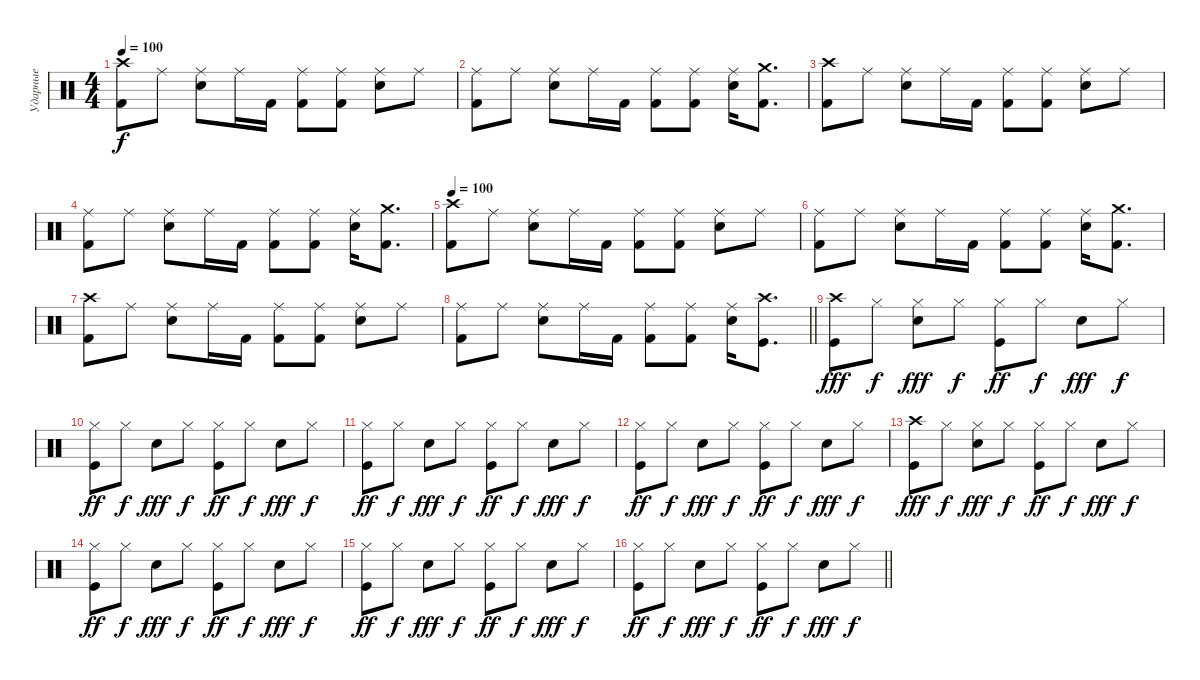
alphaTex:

\track ("Ударные" "Ударные") {instrument percussion}
\staff {score}
\articulation defaults
\ts (4 4)
\tempo 100
\clef neutral
\ks c
("Crash high (hit)" "Kick (hit) 2").8{dy f} "Ride (middle)".8 ("Ride (middle)" "Electric Snare (hit)").8 "Ride (middle)".16 "Kick (hit) 2".16 ("Ride (middle)" "Kick (hit) 2").8 ("Ride (middle)" "Kick (hit) 2").8 ("Ride (middle)" "Electric Snare (hit)").8 "Ride (middle)".8 |
("Ride (middle)" "Kick (hit) 2").8 "Ride (middle)".8 ("Ride (middle)" "Electric Snare (hit)").8 "Ride (middle)".16 "Kick (hit) 2".16 ("Ride (middle)" "Kick (hit) 2").8 ("Ride (middle)" "Kick (hit) 2").8 ("Ride (middle)" "Electric Snare (hit)").16 ("Crash medium (hit)" "Kick (hit) 2").8{d} |
("Crash high (hit)" "Kick (hit) 2").8 "Ride (middle)".8 ("Ride (middle)" "Electric Snare (hit)").8 "Ride (middle)".16 "Kick (hit) 2".16 ("Ride (middle)" "Kick (hit) 2").8 ("Ride (middle)" "Kick (hit) 2").8 ("Ride (middle)" "Electric Snare (hit)").8 "Ride (middle)".8 |
("Ride (middle)" "Kick (hit) 2").8 "Ride (middle)".8 ("Ride (middle)" "Electric Snare (hit)").8 "Ride (middle)".16 "Kick (hit) 2".16 ("Ride (middle)" "Kick (hit) 2").8 ("Ride (middle)" "Kick (hit) 2").8 ("Ride (middle)" "Electric Snare (hit)").16 ("Crash medium (hit)" "Kick (hit) 2").8{d} |
\tempo 100
("Crash high (hit)" "Kick (hit) 2").8 "Ride (middle)".8 ("Ride (middle)" "Electric Snare (hit)").8 "Ride (middle)".16 "Kick (hit) 2".16 ("Ride (middle)" "Kick (hit) 2").8 ("Ride (middle)" "Kick (hit) 2").8 ("Ride (middle)" "Electric Snare (hit)").8 "Ride (middle)".8 |
("Ride (middle)" "Kick (hit) 2").8 "Ride (middle)".8 ("Ride (middle)" "Electric Snare (hit)").8 "Ride (middle)".16 "Kick (hit) 2".16 ("Ride (middle)" "Kick (hit) 2").8 ("Ride (middle)" "Kick (hit) 2").8 ("Ride (middle)" "Electric Snare (hit)").16 ("Crash medium (hit)" "Kick (hit) 2").8{d} |
("Crash high (hit)" "Kick (hit) 2").8 "Ride (middle)".8 ("Ride (middle)" "Electric Snare (hit)").8 "Ride (middle)".16 "Kick (hit) 2".16 ("Ride (middle)" "Kick (hit) 2").8 ("Ride (middle)" "Kick (hit) 2").8 ("Ride (middle)" "Electric Snare (hit)").8 "Ride (middle)".8 |
\barLineRight lightlight
("Ride (middle)" "Kick (hit) 2").8 "Ride (middle)".8 ("Ride (middle)" "Electric Snare (hit)").8 "Ride (middle)".16 "Kick (hit) 2".16 ("Ride (middle)" "Kick (hit) 2").8 ("Ride (middle)" "Kick (hit) 2").8 ("Ride (middle)" "Electric Snare (hit)").16 ("Crash high (hit)" "Kick (hit)").8{d} |
("Kick (hit)" "Crash high (hit)").8{dy fff} "Hi-Hat (closed)".8{dy f} ("Electric Snare (hit)" "Hi-Hat (closed)").8{dy fff} "Hi-Hat (closed)".8{dy f} ("Kick (hit)" "Hi-Hat (closed)").8{dy ff} "Hi-Hat (closed)".8{dy f} "Electric Snare (hit)".8{dy fff} "Hi-Hat (closed)".8{dy f} |
("Kick (hit)" "Hi-Hat (closed)").8{dy ff} "Hi-Hat (closed)".8{dy f} "Electric Snare (hit)".8{dy fff} "Hi-Hat (closed)".8{dy f} ("Kick (hit)" "Hi-Hat (closed)").8{dy ff} "Hi-Hat (closed)".8{dy f} "Electric Snare (hit)".8{dy fff} "Hi-Hat (closed)".8{dy f} |
("Kick (hit)" "Hi-Hat (closed)").8{dy ff} "Hi-Hat (closed)".8{dy f} "Electric Snare (hit)".8{dy fff} "Hi-Hat (closed)".8{dy f} ("Kick (hit)" "Hi-Hat (closed)").8{dy ff} "Hi-Hat (closed)".8{dy f} "Electric Snare (hit)".8{dy fff} "Hi-Hat (closed)".8{dy f} |
("Kick (hit)" "Hi-Hat (closed)").8{dy ff} "Hi-Hat (closed)".8{dy f} "Electric Snare (hit)".8{dy fff} "Hi-Hat (closed)".8{dy f} ("Kick (hit)" "Hi-Hat (closed)").8{dy ff} "Hi-Hat (closed)".8{dy f} "Electric Snare (hit)".8{dy fff} "Hi-Hat (closed)".8{dy f} |
("Kick (hit)" "Crash high (hit)").8{dy fff} "Hi-Hat (closed)".8{dy f} ("Electric Snare (hit)" "Hi-Hat (closed)").8{dy fff} "Hi-Hat (closed)".8{dy f} ("Kick (hit)" "Hi-Hat (closed)").8{dy ff} "Hi-Hat (closed)".8{dy f} "Electric Snare (hit)".8{dy fff} "Hi-Hat (closed)".8{dy f} |
("Kick (hit)" "Hi-Hat (closed)").8{dy ff} "Hi-Hat (closed)".8{dy f} "Electric Snare (hit)".8{dy fff} "Hi-Hat (closed)".8{dy f} ("Kick (hit)" "Hi-Hat (closed)").8{dy ff} "Hi-Hat (closed)".8{dy f} "Electric Snare (hit)".8{dy fff} "Hi-Hat (closed)".8{dy f} |
("Kick (hit)" "Hi-Hat (closed)").8{dy ff} "Hi-Hat (closed)".8{dy f} "Electric Snare (hit)".8{dy fff} "Hi-Hat (closed)".8{dy f} ("Kick (hit)" "Hi-Hat (closed)").8{dy ff} "Hi-Hat (closed)".8{dy f} "Electric Snare (hit)".8{dy fff} "Hi-Hat (closed)".8{dy f} |
\barLineRight lightlight
("Kick (hit)" "Hi-Hat (closed)").8{dy ff} "Hi-Hat (closed)".8{dy f} "Electric Snare (hit)".8{dy fff} "Hi-Hat (closed)".8{dy f} ("Kick (hit)" "Hi-Hat (closed)").8{dy ff} "Hi-Hat (closed)".8{dy f} "Electric Snare (hit)".8{dy fff} "Hi-Hat (closed)".8{dy f}
